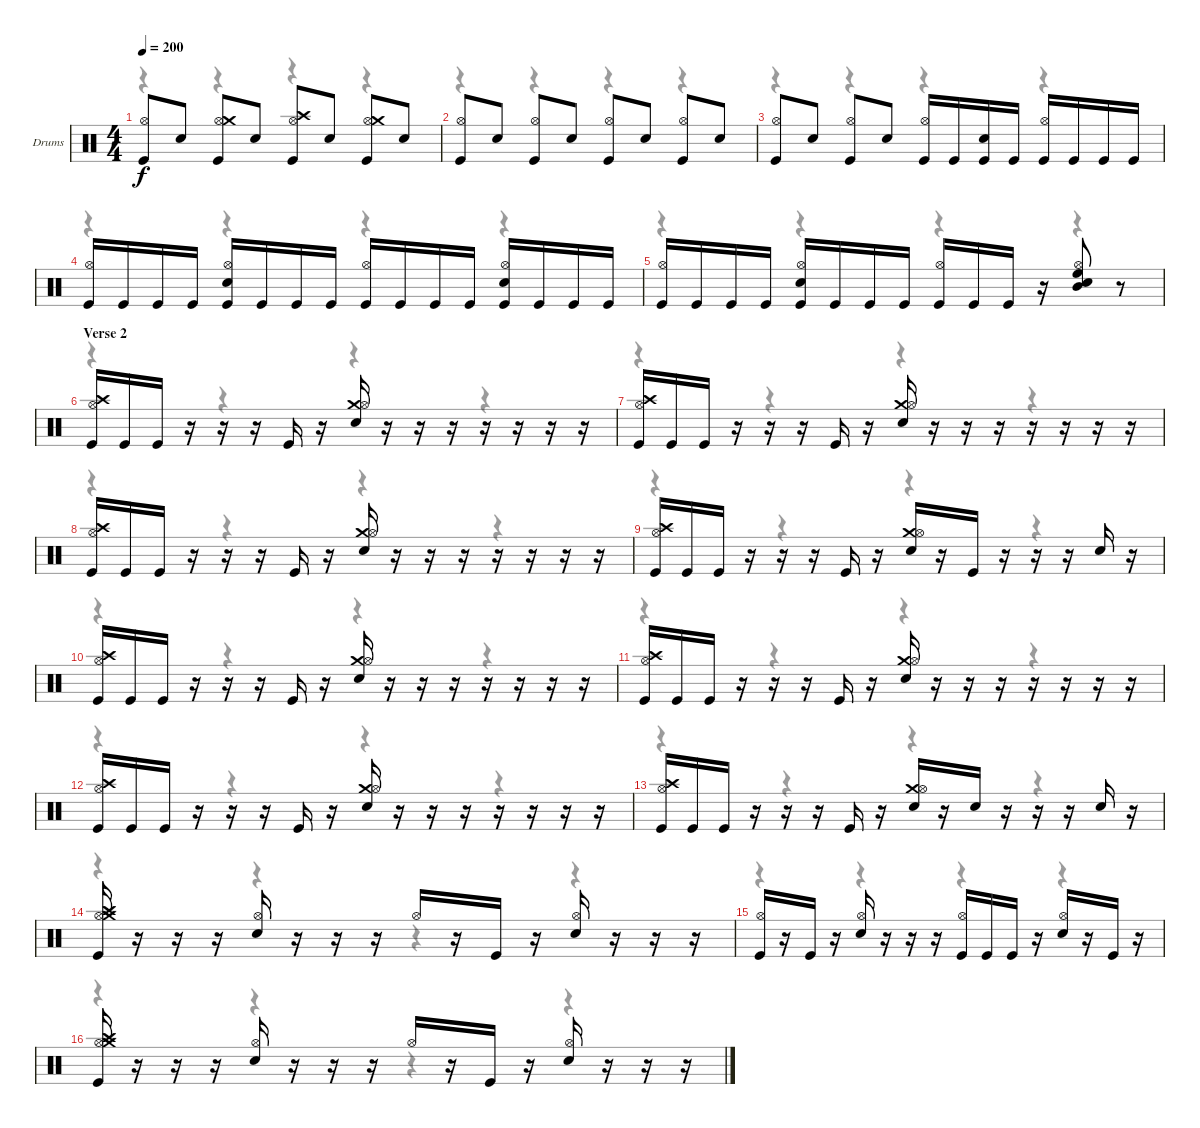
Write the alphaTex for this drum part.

\bracketExtendMode nobrackets
\firstSystemTrackNameOrientation horizontal
\otherSystemsTrackNameOrientation horizontal
\track ("Drumkit" "Drums") {instrument percussion}
\staff {score}
\articulation defaults
\voice
\ts (4 4)
\tempo 200
\clef neutral
\ks c
("Kick (hit)" "Hi-Hat (open)").8{dy f} "Snare (hit) 2".8 ("Kick (hit)" "Hi-Hat (open)" "Crash medium (hit)").8 "Snare (hit) 2".8 ("Kick (hit)" "Hi-Hat (open)" "Crash high (hit)").8 "Snare (hit) 2".8 ("Kick (hit)" "Hi-Hat (open)" "Crash medium (hit)").8 "Snare (hit) 2".8 |
("Hi-Hat (open)" "Kick (hit)").8 "Snare (hit) 2".8 ("Hi-Hat (open)" "Kick (hit)").8 "Snare (hit) 2".8 ("Hi-Hat (open)" "Kick (hit)").8 "Snare (hit) 2".8 ("Hi-Hat (open)" "Kick (hit)").8 "Snare (hit) 2".8 |
("Kick (hit)" "Hi-Hat (open)").8 "Snare (hit) 2".8 ("Kick (hit)" "Hi-Hat (open)").8 "Snare (hit) 2".8 ("Kick (hit)" "Hi-Hat (open)").16 "Kick (hit)".16 ("Kick (hit)" "Snare (hit) 2").16 "Kick (hit)".16 ("Kick (hit)" "Hi-Hat (open)").16 "Kick (hit)".16 "Kick (hit)".16 "Kick (hit)".16 |
("Kick (hit)" "Hi-Hat (open)").16 "Kick (hit)".16 "Kick (hit)".16 "Kick (hit)".16 ("Kick (hit)" "Hi-Hat (open)" "Snare (hit) 2").16 "Kick (hit)".16 "Kick (hit)".16 "Kick (hit)".16 ("Kick (hit)" "Hi-Hat (open)").16 "Kick (hit)".16 "Kick (hit)".16 "Kick (hit)".16 ("Kick (hit)" "Hi-Hat (open)" "Snare (hit) 2").16 "Kick (hit)".16 "Kick (hit)".16 "Kick (hit)".16 |
("Kick (hit)" "Hi-Hat (open)").16 "Kick (hit)".16 "Kick (hit)".16 "Kick (hit)".16 ("Kick (hit)" "Snare (hit) 2" "Hi-Hat (open)").16 "Kick (hit)".16 "Kick (hit)".16 "Kick (hit)".16 ("Kick (hit)" "Hi-Hat (open)").16 "Kick (hit)".16 "Kick (hit)".16 r.16 ("High Floor Tom (hit)" "Snare (hit) 2" "Hi-Hat (open)" "Mid Tom (hit)").8 r.8 |
\section ("" "Verse 2")
("Kick (hit)" "Crash high (hit)" "Hi-Hat (open)").16 "Kick (hit)".16 "Kick (hit)".16 r.16 r.16 r.16 "Kick (hit)".16 r.16 ("Crash medium (hit)" "Snare (hit) 2" "Hi-Hat (open)").16 r.16 r.16 r.16 r.16 r.16 r.16 r.16 |
("Kick (hit)" "Crash high (hit)" "Hi-Hat (open)").16 "Kick (hit)".16 "Kick (hit)".16 r.16 r.16 r.16 "Kick (hit)".16 r.16 ("Crash medium (hit)" "Snare (hit) 2" "Hi-Hat (open)").16 r.16 r.16 r.16 r.16 r.16 r.16 r.16 |
("Kick (hit)" "Crash high (hit)" "Hi-Hat (open)").16 "Kick (hit)".16 "Kick (hit)".16 r.16 r.16 r.16 "Kick (hit)".16 r.16 ("Crash medium (hit)" "Snare (hit) 2" "Hi-Hat (open)").16 r.16 r.16 r.16 r.16 r.16 r.16 r.16 |
("Kick (hit)" "Crash high (hit)" "Hi-Hat (open)").16 "Kick (hit)".16 "Kick (hit)".16 r.16 r.16 r.16 "Kick (hit)".16 r.16 ("Crash medium (hit)" "Snare (hit) 2" "Hi-Hat (open)").16 r.16 "Kick (hit)".16 r.16 r.16 r.16 "Snare (hit) 2".16 r.16 |
("Kick (hit)" "Crash high (hit)" "Hi-Hat (open)").16 "Kick (hit)".16 "Kick (hit)".16 r.16 r.16 r.16 "Kick (hit)".16 r.16 ("Crash medium (hit)" "Snare (hit) 2" "Hi-Hat (open)").16 r.16 r.16 r.16 r.16 r.16 r.16 r.16 |
("Kick (hit)" "Crash high (hit)" "Hi-Hat (open)").16 "Kick (hit)".16 "Kick (hit)".16 r.16 r.16 r.16 "Kick (hit)".16 r.16 ("Crash medium (hit)" "Snare (hit) 2" "Hi-Hat (open)").16 r.16 r.16 r.16 r.16 r.16 r.16 r.16 |
("Kick (hit)" "Crash high (hit)" "Hi-Hat (open)").16 "Kick (hit)".16 "Kick (hit)".16 r.16 r.16 r.16 "Kick (hit)".16 r.16 ("Crash medium (hit)" "Snare (hit) 2" "Hi-Hat (open)").16 r.16 r.16 r.16 r.16 r.16 r.16 r.16 |
("Kick (hit)" "Crash high (hit)" "Hi-Hat (open)").16 "Kick (hit)".16 "Kick (hit)".16 r.16 r.16 r.16 "Kick (hit)".16 r.16 ("Crash medium (hit)" "Snare (hit) 2" "Hi-Hat (open)").16 r.16 "Snare (hit) 2".16 r.16 r.16 r.16 "Snare (hit) 2".16 r.16 |
("Kick (hit)" "Hi-Hat (open)" "Crash medium (hit)" "Crash high (hit)").16 r.16 r.16 r.16 ("Snare (hit) 2" "Hi-Hat (open)").16 r.16 r.16 r.16 "Hi-Hat (open)".16 r.16 "Kick (hit)".16 r.16 ("Snare (hit) 2" "Hi-Hat (open)").16 r.16 r.16 r.16 |
("Kick (hit)" "Hi-Hat (open)").16 r.16 "Kick (hit)".16 r.16 ("Snare (hit) 2" "Hi-Hat (open)").16 r.16 r.16 r.16 ("Kick (hit)" "Hi-Hat (open)").16 "Kick (hit)".16 "Kick (hit)".16 r.16 ("Snare (hit) 2" "Hi-Hat (open)").16 r.16 "Kick (hit)".16 r.16 |
("Kick (hit)" "Hi-Hat (open)" "Crash medium (hit)" "Crash high (hit)").16 r.16 r.16 r.16 ("Snare (hit) 2" "Hi-Hat (open)").16 r.16 r.16 r.16 "Hi-Hat (open)".16 r.16 "Kick (hit)".16 r.16 ("Snare (hit) 2" "Hi-Hat (open)").16 r.16 r.16 r.16
\voice
\clef neutral
\ottava regular
\simile none
\ks c
r.4{dy mf} r.4 r.4 r.4 |
r.4 r.4 r.4 r.4 |
r.4 r.4 r.4 r.4 |
r.4 r.4 r.4 r.4 |
r.4 r.4 r.4 r.4 |
r.4 r.4 r.4 r.4 |
r.4 r.4 r.4 r.4 |
r.4 r.4 r.4 r.4 |
r.4 r.4 r.4 r.4 |
r.4 r.4 r.4 r.4 |
r.4 r.4 r.4 r.4 |
r.4 r.4 r.4 r.4 |
r.4 r.4 r.4 r.4 |
r.4 r.4 r.4 r.4 |
r.4 r.4 r.4 r.4 |
r.4 r.4 r.4 r.4
